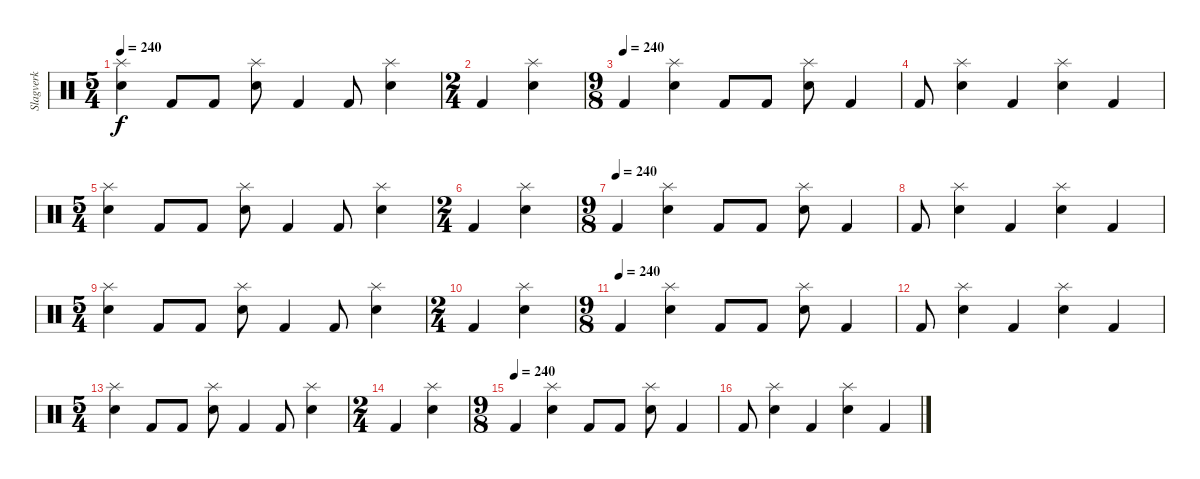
\track ("Slagverk" "Slagverk") {instrument percussion}
\staff {score}
\articulation defaults
\ts (5 4)
\tempo 240
\clef neutral
\ks c
("Splash (hit)" "Electric Snare (hit)").4{dy f} "Kick (hit) 2".8 "Kick (hit) 2".8 ("Splash (hit)" "Electric Snare (hit)").8 "Kick (hit) 2".4 "Kick (hit) 2".8 ("Splash (hit)" "Electric Snare (hit)").4 |
\ts (2 4)
"Kick (hit) 2".4 ("Splash (hit)" "Electric Snare (hit)").4 |
\ts (9 8)
\tempo (240)
"Kick (hit) 2".4 ("Splash (hit)" "Electric Snare (hit)").4 "Kick (hit) 2".8 "Kick (hit) 2".8 ("Splash (hit)" "Electric Snare (hit)").8 "Kick (hit) 2".4 |
"Kick (hit) 2".8 ("Splash (hit)" "Electric Snare (hit)").4 "Kick (hit) 2".4 ("Splash (hit)" "Electric Snare (hit)").4 "Kick (hit) 2".4 |
\ts (5 4)
("Splash (hit)" "Electric Snare (hit)").4 "Kick (hit) 2".8 "Kick (hit) 2".8 ("Splash (hit)" "Electric Snare (hit)").8 "Kick (hit) 2".4 "Kick (hit) 2".8 ("Splash (hit)" "Electric Snare (hit)").4 |
\ts (2 4)
"Kick (hit) 2".4 ("Splash (hit)" "Electric Snare (hit)").4 |
\ts (9 8)
\tempo (240)
"Kick (hit) 2".4 ("Splash (hit)" "Electric Snare (hit)").4 "Kick (hit) 2".8 "Kick (hit) 2".8 ("Splash (hit)" "Electric Snare (hit)").8 "Kick (hit) 2".4 |
"Kick (hit) 2".8 ("Splash (hit)" "Electric Snare (hit)").4 "Kick (hit) 2".4 ("Splash (hit)" "Electric Snare (hit)").4 "Kick (hit) 2".4 |
\ts (5 4)
("Splash (hit)" "Electric Snare (hit)").4 "Kick (hit) 2".8 "Kick (hit) 2".8 ("Splash (hit)" "Electric Snare (hit)").8 "Kick (hit) 2".4 "Kick (hit) 2".8 ("Splash (hit)" "Electric Snare (hit)").4 |
\ts (2 4)
"Kick (hit) 2".4 ("Splash (hit)" "Electric Snare (hit)").4 |
\ts (9 8)
\tempo (240)
"Kick (hit) 2".4 ("Splash (hit)" "Electric Snare (hit)").4 "Kick (hit) 2".8 "Kick (hit) 2".8 ("Splash (hit)" "Electric Snare (hit)").8 "Kick (hit) 2".4 |
"Kick (hit) 2".8 ("Splash (hit)" "Electric Snare (hit)").4 "Kick (hit) 2".4 ("Splash (hit)" "Electric Snare (hit)").4 "Kick (hit) 2".4 |
\ts (5 4)
("Splash (hit)" "Electric Snare (hit)").4 "Kick (hit) 2".8 "Kick (hit) 2".8 ("Splash (hit)" "Electric Snare (hit)").8 "Kick (hit) 2".4 "Kick (hit) 2".8 ("Splash (hit)" "Electric Snare (hit)").4 |
\ts (2 4)
"Kick (hit) 2".4 ("Splash (hit)" "Electric Snare (hit)").4 |
\ts (9 8)
\tempo (240)
"Kick (hit) 2".4 ("Splash (hit)" "Electric Snare (hit)").4 "Kick (hit) 2".8 "Kick (hit) 2".8 ("Splash (hit)" "Electric Snare (hit)").8 "Kick (hit) 2".4 |
"Kick (hit) 2".8 ("Splash (hit)" "Electric Snare (hit)").4 "Kick (hit) 2".4 ("Splash (hit)" "Electric Snare (hit)").4 "Kick (hit) 2".4
